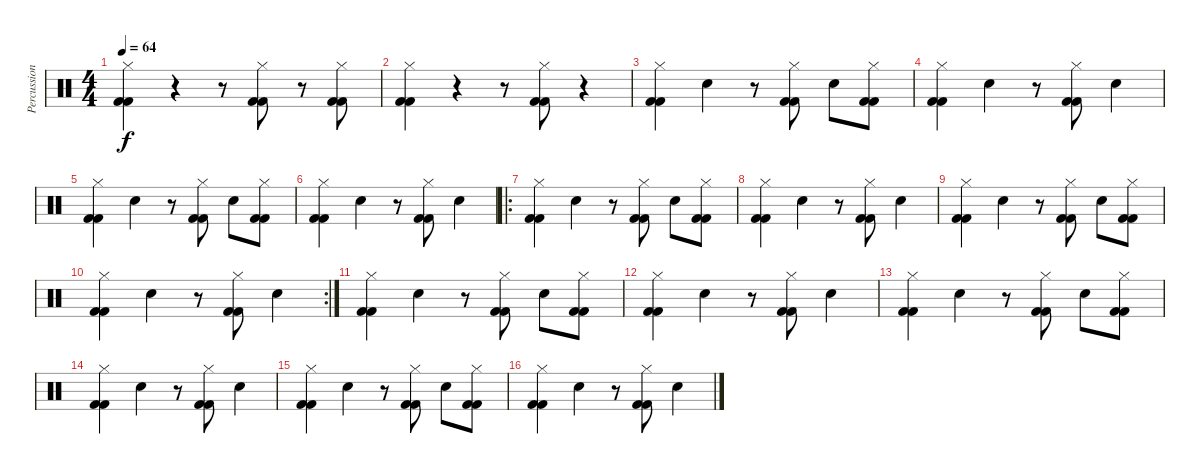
\track ("Percussions" "Percussion") {instrument percussion}
\staff {score}
\articulation defaults
\ts (4 4)
\tempo 64
\clef neutral
\ks c
("Kick (hit) 2" "Hi-Hat (closed)" "Kick (hit) 2").4{dy f} r.4 r.8 ("Kick (hit) 2" "Hi-Hat (closed)" "Kick (hit) 2").8 r.8 ("Kick (hit) 2" "Hi-Hat (closed)" "Kick (hit) 2").8 |
("Kick (hit) 2" "Hi-Hat (closed)" "Kick (hit) 2").4 r.4 r.8 ("Kick (hit) 2" "Hi-Hat (closed)" "Kick (hit) 2").8 r.4 |
("Kick (hit) 2" "Hi-Hat (closed)" "Kick (hit) 2").4 "Hand Clap (hit)".4 r.8 ("Kick (hit) 2" "Hi-Hat (closed)" "Kick (hit) 2").8 "Hand Clap (hit)".8 ("Kick (hit) 2" "Hi-Hat (closed)" "Kick (hit) 2").8 |
("Kick (hit) 2" "Hi-Hat (closed)" "Kick (hit) 2").4 "Hand Clap (hit)".4 r.8 ("Kick (hit) 2" "Hi-Hat (closed)" "Kick (hit) 2").8 "Hand Clap (hit)".4 |
("Kick (hit) 2" "Hi-Hat (closed)" "Kick (hit) 2").4 "Hand Clap (hit)".4 r.8 ("Kick (hit) 2" "Hi-Hat (closed)" "Kick (hit) 2").8 "Hand Clap (hit)".8 ("Kick (hit) 2" "Hi-Hat (closed)" "Kick (hit) 2").8 |
("Kick (hit) 2" "Hi-Hat (closed)" "Kick (hit) 2").4 "Hand Clap (hit)".4 r.8 ("Kick (hit) 2" "Hi-Hat (closed)" "Kick (hit) 2").8 "Hand Clap (hit)".4 |
\ro
("Kick (hit) 2" "Hi-Hat (closed)" "Kick (hit) 2").4 "Hand Clap (hit)".4 r.8 ("Kick (hit) 2" "Hi-Hat (closed)" "Kick (hit) 2").8 "Hand Clap (hit)".8 ("Kick (hit) 2" "Hi-Hat (closed)" "Kick (hit) 2").8 |
("Kick (hit) 2" "Hi-Hat (closed)" "Kick (hit) 2").4 "Hand Clap (hit)".4 r.8 ("Kick (hit) 2" "Hi-Hat (closed)" "Kick (hit) 2").8 "Hand Clap (hit)".4 |
("Kick (hit) 2" "Hi-Hat (closed)" "Kick (hit) 2").4 "Hand Clap (hit)".4 r.8 ("Kick (hit) 2" "Hi-Hat (closed)" "Kick (hit) 2").8 "Hand Clap (hit)".8 ("Kick (hit) 2" "Hi-Hat (closed)" "Kick (hit) 2").8 |
\rc 2
("Kick (hit) 2" "Hi-Hat (closed)" "Kick (hit) 2").4 "Hand Clap (hit)".4 r.8 ("Kick (hit) 2" "Hi-Hat (closed)" "Kick (hit) 2").8 "Hand Clap (hit)".4 |
("Kick (hit) 2" "Hi-Hat (closed)" "Kick (hit) 2").4 "Hand Clap (hit)".4 r.8 ("Kick (hit) 2" "Hi-Hat (closed)" "Kick (hit) 2").8 "Hand Clap (hit)".8 ("Kick (hit) 2" "Hi-Hat (closed)" "Kick (hit) 2").8 |
("Kick (hit) 2" "Hi-Hat (closed)" "Kick (hit) 2").4 "Hand Clap (hit)".4 r.8 ("Kick (hit) 2" "Hi-Hat (closed)" "Kick (hit) 2").8 "Hand Clap (hit)".4 |
("Kick (hit) 2" "Hi-Hat (closed)" "Kick (hit) 2").4 "Hand Clap (hit)".4 r.8 ("Kick (hit) 2" "Hi-Hat (closed)" "Kick (hit) 2").8 "Hand Clap (hit)".8 ("Kick (hit) 2" "Hi-Hat (closed)" "Kick (hit) 2").8 |
("Kick (hit) 2" "Hi-Hat (closed)" "Kick (hit) 2").4 "Hand Clap (hit)".4 r.8 ("Kick (hit) 2" "Hi-Hat (closed)" "Kick (hit) 2").8 "Hand Clap (hit)".4 |
("Kick (hit) 2" "Hi-Hat (closed)" "Kick (hit) 2").4 "Hand Clap (hit)".4 r.8 ("Kick (hit) 2" "Hi-Hat (closed)" "Kick (hit) 2").8 "Hand Clap (hit)".8 ("Kick (hit) 2" "Hi-Hat (closed)" "Kick (hit) 2").8 |
("Kick (hit) 2" "Hi-Hat (closed)" "Kick (hit) 2").4 "Hand Clap (hit)".4 r.8 ("Kick (hit) 2" "Hi-Hat (closed)" "Kick (hit) 2").8 "Hand Clap (hit)".4
